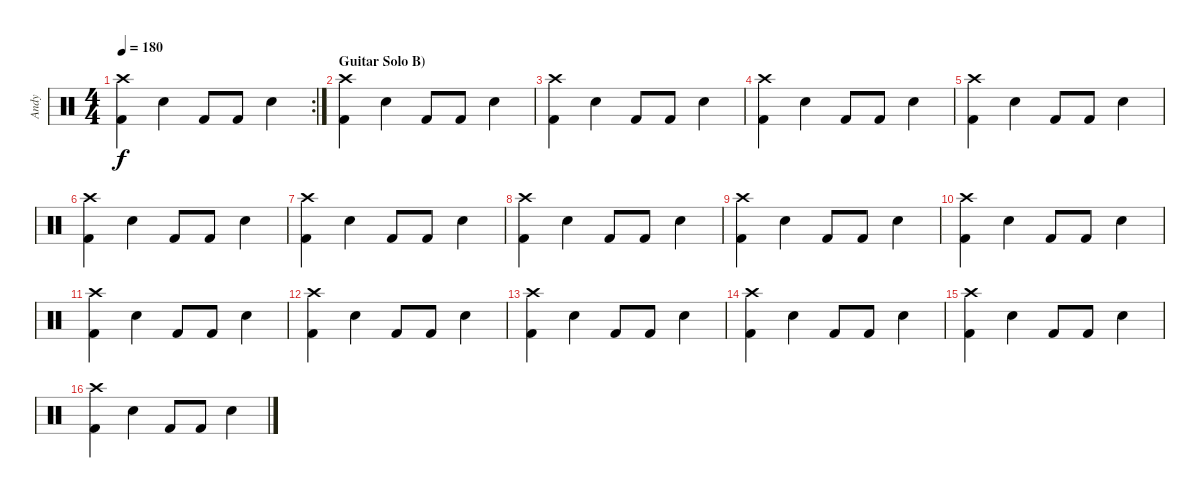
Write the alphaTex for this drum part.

\track ("Andy" "Andy") {instrument percussion}
\staff {score}
\articulation defaults
\rc 2
\ts (4 4)
\tempo 180
\clef neutral
\ks c
("Crash high (hit)" "Kick (hit) 2").4{dy f} "Snare (hit) 2".4 "Kick (hit) 2".8 "Kick (hit) 2".8 "Snare (hit) 2".4 |
\section ("" "Guitar Solo B)")
("Crash high (hit)" "Kick (hit) 2").4 "Snare (hit) 2".4 "Kick (hit) 2".8 "Kick (hit) 2".8 "Snare (hit) 2".4 |
("Crash high (hit)" "Kick (hit) 2").4 "Snare (hit) 2".4 "Kick (hit) 2".8 "Kick (hit) 2".8 "Snare (hit) 2".4 |
("Crash high (hit)" "Kick (hit) 2").4 "Snare (hit) 2".4 "Kick (hit) 2".8 "Kick (hit) 2".8 "Snare (hit) 2".4 |
("Crash high (hit)" "Kick (hit) 2").4 "Snare (hit) 2".4 "Kick (hit) 2".8 "Kick (hit) 2".8 "Snare (hit) 2".4 |
("Crash high (hit)" "Kick (hit) 2").4 "Snare (hit) 2".4 "Kick (hit) 2".8 "Kick (hit) 2".8 "Snare (hit) 2".4 |
("Crash high (hit)" "Kick (hit) 2").4 "Snare (hit) 2".4 "Kick (hit) 2".8 "Kick (hit) 2".8 "Snare (hit) 2".4 |
("Crash high (hit)" "Kick (hit) 2").4 "Snare (hit) 2".4 "Kick (hit) 2".8 "Kick (hit) 2".8 "Snare (hit) 2".4 |
("Crash high (hit)" "Kick (hit) 2").4 "Snare (hit) 2".4 "Kick (hit) 2".8 "Kick (hit) 2".8 "Snare (hit) 2".4 |
("Crash high (hit)" "Kick (hit) 2").4 "Snare (hit) 2".4 "Kick (hit) 2".8 "Kick (hit) 2".8 "Snare (hit) 2".4 |
("Crash high (hit)" "Kick (hit) 2").4 "Snare (hit) 2".4 "Kick (hit) 2".8 "Kick (hit) 2".8 "Snare (hit) 2".4 |
("Crash high (hit)" "Kick (hit) 2").4 "Snare (hit) 2".4 "Kick (hit) 2".8 "Kick (hit) 2".8 "Snare (hit) 2".4 |
("Crash high (hit)" "Kick (hit) 2").4 "Snare (hit) 2".4 "Kick (hit) 2".8 "Kick (hit) 2".8 "Snare (hit) 2".4 |
("Crash high (hit)" "Kick (hit) 2").4 "Snare (hit) 2".4 "Kick (hit) 2".8 "Kick (hit) 2".8 "Snare (hit) 2".4 |
("Crash high (hit)" "Kick (hit) 2").4 "Snare (hit) 2".4 "Kick (hit) 2".8 "Kick (hit) 2".8 "Snare (hit) 2".4 |
("Crash high (hit)" "Kick (hit) 2").4 "Snare (hit) 2".4 "Kick (hit) 2".8 "Kick (hit) 2".8 "Snare (hit) 2".4
